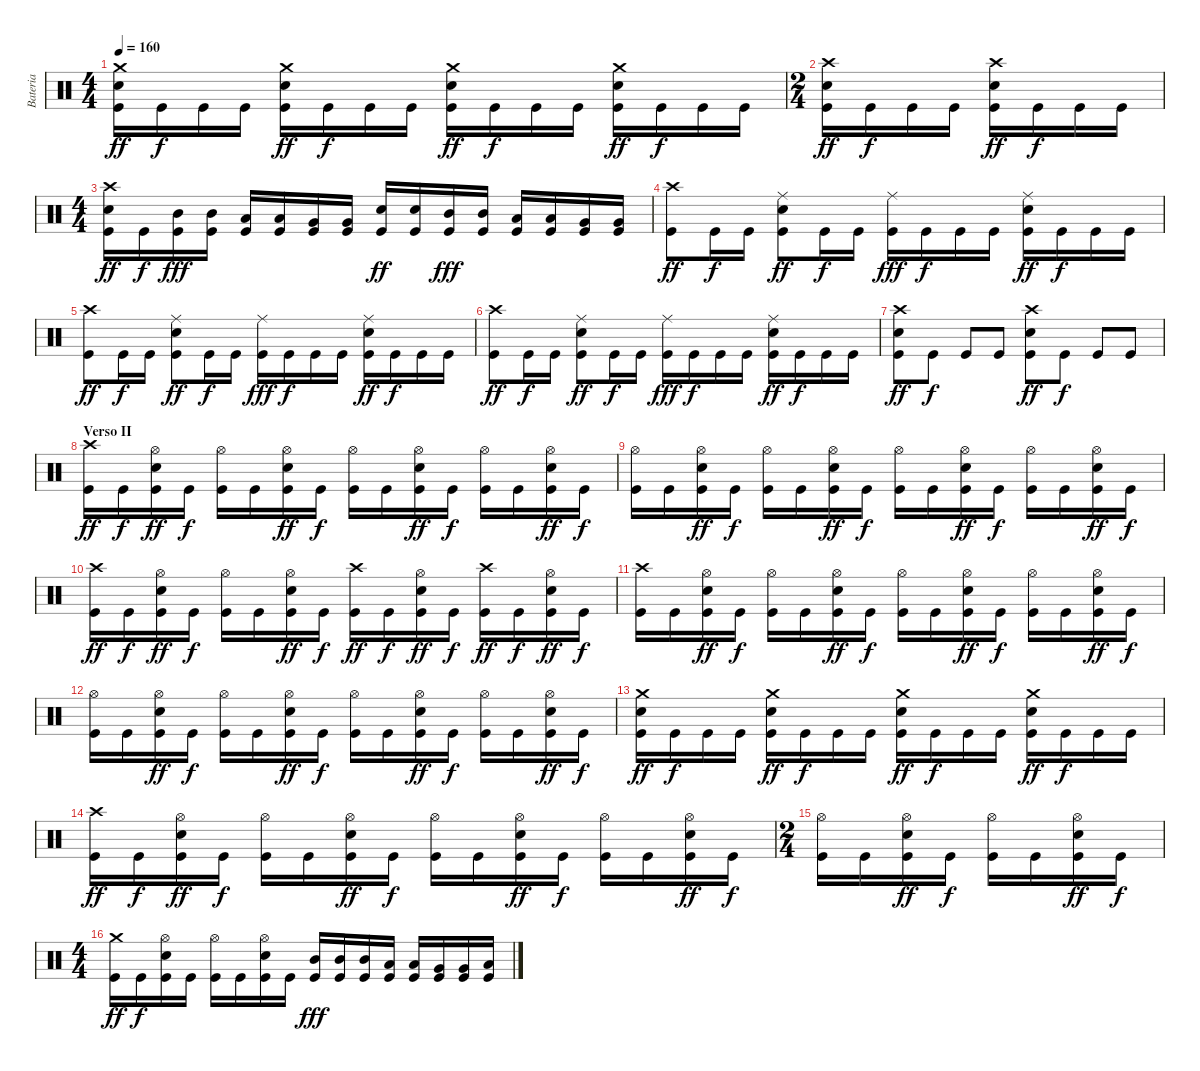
\track ("Bateria" "Bateria") {instrument percussion}
\staff {score}
\articulation defaults
\ts (4 4)
\tempo 160
\clef neutral
\ks c
("Kick (hit)" "Electric Snare (hit)" "Crash medium (hit)").16{dy ff} "Kick (hit)".16{dy f} "Kick (hit)".16 "Kick (hit)".16 ("Kick (hit)" "Electric Snare (hit)" "Crash medium (hit)").16{dy ff} "Kick (hit)".16{dy f} "Kick (hit)".16 "Kick (hit)".16 ("Kick (hit)" "Electric Snare (hit)" "Crash medium (hit)").16{dy ff} "Kick (hit)".16{dy f} "Kick (hit)".16 "Kick (hit)".16 ("Kick (hit)" "Electric Snare (hit)" "Crash medium (hit)").16{dy ff} "Kick (hit)".16{dy f} "Kick (hit)".16 "Kick (hit)".16 |
\ts (2 4)
("Kick (hit)" "Electric Snare (hit)" "Crash high (hit)").16{dy ff} "Kick (hit)".16{dy f} "Kick (hit)".16 "Kick (hit)".16 ("Kick (hit)" "Electric Snare (hit)" "Crash high (hit)").16{dy ff} "Kick (hit)".16{dy f} "Kick (hit)".16 "Kick (hit)".16 |
\ts (4 4)
("Kick (hit)" "Electric Snare (hit)" "Crash high (hit)").16{dy ff} "Kick (hit)".16{dy f} ("Kick (hit)" "Mid Tom (hit)").16{dy fff} ("Kick (hit)" "Mid Tom (hit)").16 ("Kick (hit)" "Low Tom (hit)").16 ("Kick (hit)" "Low Tom (hit)").16 ("Kick (hit)" "Very Low Tom (hit)").16 ("Kick (hit)" "Very Low Tom (hit)").16 ("Kick (hit)" "Electric Snare (hit)").16{dy ff} ("Kick (hit)" "Electric Snare (hit)").16 ("Kick (hit)" "Mid Tom (hit)").16{dy fff} ("Kick (hit)" "Mid Tom (hit)").16 ("Kick (hit)" "Low Tom (hit)").16 ("Kick (hit)" "Low Tom (hit)").16 ("Kick (hit)" "Very Low Tom (hit)").16 ("Kick (hit)" "Very Low Tom (hit)").16 |
("Kick (hit)" "Crash high (hit)").8{dy ff} "Kick (hit)".16{dy f} "Kick (hit)".16 ("Kick (hit)" "Ride (middle)" "Electric Snare (hit)").8{dy ff} "Kick (hit)".16{dy f} "Kick (hit)".16 ("Kick (hit)" "Ride (middle)").16{dy fff} "Kick (hit)".16{dy f} "Kick (hit)".16 "Kick (hit)".16 ("Kick (hit)" "Ride (middle)" "Electric Snare (hit)").16{dy ff} "Kick (hit)".16{dy f} "Kick (hit)".16 "Kick (hit)".16 |
("Kick (hit)" "Crash high (hit)").8{dy ff} "Kick (hit)".16{dy f} "Kick (hit)".16 ("Kick (hit)" "Ride (middle)" "Electric Snare (hit)").8{dy ff} "Kick (hit)".16{dy f} "Kick (hit)".16 ("Kick (hit)" "Ride (middle)").16{dy fff} "Kick (hit)".16{dy f} "Kick (hit)".16 "Kick (hit)".16 ("Kick (hit)" "Ride (middle)" "Electric Snare (hit)").16{dy ff} "Kick (hit)".16{dy f} "Kick (hit)".16 "Kick (hit)".16 |
("Kick (hit)" "Crash high (hit)").8{dy ff} "Kick (hit)".16{dy f} "Kick (hit)".16 ("Kick (hit)" "Ride (middle)" "Electric Snare (hit)").8{dy ff} "Kick (hit)".16{dy f} "Kick (hit)".16 ("Kick (hit)" "Ride (middle)").16{dy fff} "Kick (hit)".16{dy f} "Kick (hit)".16 "Kick (hit)".16 ("Kick (hit)" "Ride (middle)" "Electric Snare (hit)").16{dy ff} "Kick (hit)".16{dy f} "Kick (hit)".16 "Kick (hit)".16 |
("Kick (hit)" "Electric Snare (hit)" "Crash high (hit)").8{dy ff} "Kick (hit)".8{dy f} "Kick (hit)".8 "Kick (hit)".8 ("Kick (hit)" "Electric Snare (hit)" "Crash high (hit)").8{dy ff} "Kick (hit)".8{dy f} "Kick (hit)".8 "Kick (hit)".8 |
\section ("" "Verso II")
("Kick (hit)" "Crash high (hit)").16{dy ff} "Kick (hit)".16{dy f} ("Kick (hit)" "Electric Snare (hit)" "Hi-Hat (open)").16{dy ff} "Kick (hit)".16{dy f} ("Kick (hit)" "Hi-Hat (open)").16 "Kick (hit)".16 ("Kick (hit)" "Electric Snare (hit)" "Hi-Hat (open)").16{dy ff} "Kick (hit)".16{dy f} ("Kick (hit)" "Hi-Hat (open)").16 "Kick (hit)".16 ("Kick (hit)" "Electric Snare (hit)" "Hi-Hat (open)").16{dy ff} "Kick (hit)".16{dy f} ("Kick (hit)" "Hi-Hat (open)").16 "Kick (hit)".16 ("Kick (hit)" "Electric Snare (hit)" "Hi-Hat (open)").16{dy ff} "Kick (hit)".16{dy f} |
("Kick (hit)" "Hi-Hat (open)").16 "Kick (hit)".16 ("Kick (hit)" "Electric Snare (hit)" "Hi-Hat (open)").16{dy ff} "Kick (hit)".16{dy f} ("Kick (hit)" "Hi-Hat (open)").16 "Kick (hit)".16 ("Kick (hit)" "Electric Snare (hit)" "Hi-Hat (open)").16{dy ff} "Kick (hit)".16{dy f} ("Kick (hit)" "Hi-Hat (open)").16 "Kick (hit)".16 ("Kick (hit)" "Electric Snare (hit)" "Hi-Hat (open)").16{dy ff} "Kick (hit)".16{dy f} ("Kick (hit)" "Hi-Hat (open)").16 "Kick (hit)".16 ("Kick (hit)" "Electric Snare (hit)" "Hi-Hat (open)").16{dy ff} "Kick (hit)".16{dy f} |
("Kick (hit)" "Crash high (hit)").16{dy ff} "Kick (hit)".16{dy f} ("Kick (hit)" "Electric Snare (hit)" "Hi-Hat (open)").16{dy ff} "Kick (hit)".16{dy f} ("Kick (hit)" "Hi-Hat (open)").16 "Kick (hit)".16 ("Kick (hit)" "Electric Snare (hit)" "Hi-Hat (open)").16{dy ff} "Kick (hit)".16{dy f} ("Kick (hit)" "Crash high (hit)").16{dy ff} "Kick (hit)".16{dy f} ("Kick (hit)" "Electric Snare (hit)" "Hi-Hat (open)").16{dy ff} "Kick (hit)".16{dy f} ("Kick (hit)" "Crash high (hit)").16{dy ff} "Kick (hit)".16{dy f} ("Kick (hit)" "Electric Snare (hit)" "Hi-Hat (open)").16{dy ff} "Kick (hit)".16{dy f} |
("Kick (hit)" "Crash high (hit)").16 "Kick (hit)".16 ("Kick (hit)" "Electric Snare (hit)" "Hi-Hat (open)").16{dy ff} "Kick (hit)".16{dy f} ("Kick (hit)" "Hi-Hat (open)").16 "Kick (hit)".16 ("Kick (hit)" "Electric Snare (hit)" "Hi-Hat (open)").16{dy ff} "Kick (hit)".16{dy f} ("Kick (hit)" "Hi-Hat (open)").16 "Kick (hit)".16 ("Kick (hit)" "Electric Snare (hit)" "Hi-Hat (open)").16{dy ff} "Kick (hit)".16{dy f} ("Kick (hit)" "Hi-Hat (open)").16 "Kick (hit)".16 ("Kick (hit)" "Electric Snare (hit)" "Hi-Hat (open)").16{dy ff} "Kick (hit)".16{dy f} |
("Kick (hit)" "Hi-Hat (open)").16 "Kick (hit)".16 ("Kick (hit)" "Electric Snare (hit)" "Hi-Hat (open)").16{dy ff} "Kick (hit)".16{dy f} ("Kick (hit)" "Hi-Hat (open)").16 "Kick (hit)".16 ("Kick (hit)" "Electric Snare (hit)" "Hi-Hat (open)").16{dy ff} "Kick (hit)".16{dy f} ("Kick (hit)" "Hi-Hat (open)").16 "Kick (hit)".16 ("Kick (hit)" "Electric Snare (hit)" "Hi-Hat (open)").16{dy ff} "Kick (hit)".16{dy f} ("Kick (hit)" "Hi-Hat (open)").16 "Kick (hit)".16 ("Kick (hit)" "Electric Snare (hit)" "Hi-Hat (open)").16{dy ff} "Kick (hit)".16{dy f} |
("Kick (hit)" "Electric Snare (hit)" "Crash medium (hit)").16{dy ff} "Kick (hit)".16{dy f} "Kick (hit)".16 "Kick (hit)".16 ("Kick (hit)" "Electric Snare (hit)" "Crash medium (hit)").16{dy ff} "Kick (hit)".16{dy f} "Kick (hit)".16 "Kick (hit)".16 ("Kick (hit)" "Electric Snare (hit)" "Crash medium (hit)").16{dy ff} "Kick (hit)".16{dy f} "Kick (hit)".16 "Kick (hit)".16 ("Kick (hit)" "Electric Snare (hit)" "Crash medium (hit)").16{dy ff} "Kick (hit)".16{dy f} "Kick (hit)".16 "Kick (hit)".16 |
("Kick (hit)" "Crash high (hit)").16{dy ff} "Kick (hit)".16{dy f} ("Kick (hit)" "Electric Snare (hit)" "Hi-Hat (open)").16{dy ff} "Kick (hit)".16{dy f} ("Kick (hit)" "Hi-Hat (open)").16 "Kick (hit)".16 ("Kick (hit)" "Electric Snare (hit)" "Hi-Hat (open)").16{dy ff} "Kick (hit)".16{dy f} ("Kick (hit)" "Hi-Hat (open)").16 "Kick (hit)".16 ("Kick (hit)" "Electric Snare (hit)" "Hi-Hat (open)").16{dy ff} "Kick (hit)".16{dy f} ("Kick (hit)" "Hi-Hat (open)").16 "Kick (hit)".16 ("Kick (hit)" "Electric Snare (hit)" "Hi-Hat (open)").16{dy ff} "Kick (hit)".16{dy f} |
\ts (2 4)
("Kick (hit)" "Hi-Hat (open)").16 "Kick (hit)".16 ("Kick (hit)" "Electric Snare (hit)" "Hi-Hat (open)").16{dy ff} "Kick (hit)".16{dy f} ("Kick (hit)" "Hi-Hat (open)").16 "Kick (hit)".16 ("Kick (hit)" "Electric Snare (hit)" "Hi-Hat (open)").16{dy ff} "Kick (hit)".16{dy f} |
\ts (4 4)
("Kick (hit)" "Crash medium (hit)").16{dy ff} "Kick (hit)".16{dy f} ("Kick (hit)" "Electric Snare (hit)" "Hi-Hat (open)").16 "Kick (hit)".16 ("Kick (hit)" "Hi-Hat (open)").16 "Kick (hit)".16 ("Kick (hit)" "Electric Snare (hit)" "Hi-Hat (open)").16 "Kick (hit)".16 ("Kick (hit)" "Mid Tom (hit)").16{dy fff} ("Kick (hit)" "Mid Tom (hit)").16 ("Kick (hit)" "Mid Tom (hit)").16 ("Kick (hit)" "Low Tom (hit)").16 ("Kick (hit)" "Low Tom (hit)").16 ("Kick (hit)" "Very Low Tom (hit)").16 ("Kick (hit)" "Very Low Tom (hit)").16 ("Kick (hit)" "Low Floor Tom (hit)").16
